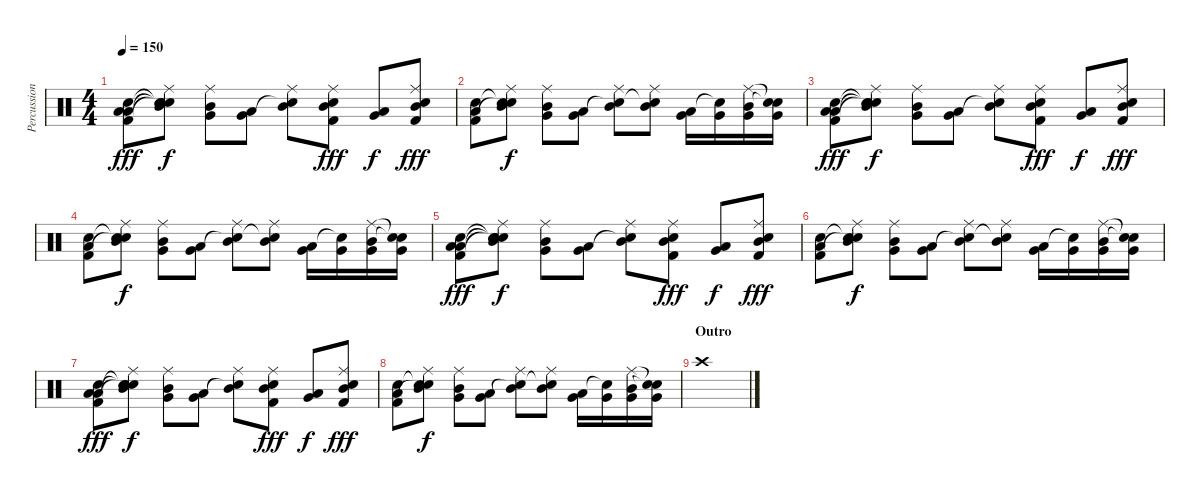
\track ("Percussion" "Percussion") {instrument percussion}
\staff {score}
\articulation defaults
\ts (4 4)
\tempo 150
\clef neutral
\ks c
("Snare (hit) 2" "Kick (hit) 2" "Low Floor Tom (hit)" "Low Tom (hit)").8{dy fff} ("Snare (hit)"{t} "Snare (hit)"{t} "Snare (hit)"{t} "Ride (middle)" "Mid Tom (hit)").8{dy f} ("Very Low Tom (hit)" "Ride (middle)" "Mid Tom (hit)").8 ("Very Low Tom (hit)" "Low Tom (hit)").8 ("Snare (hit)"{t} "Ride (middle)" "Mid Tom (hit)").8 ("Snare (hit) 2" "Kick (hit) 2" "Ride (middle)" "Mid Tom (hit)").8{dy fff} ("Very Low Tom (hit)" "Low Tom (hit)").8{dy f} ("Snare (hit) 2" "Kick (hit) 2" "Ride (middle)" "Mid Tom (hit)").8{dy fff} |
("Snare (hit) 2" "Kick (hit) 2" "Low Tom (hit)").8 ("Snare (hit)"{t} "Snare (hit)"{t} "Ride (middle)" "Mid Tom (hit)").8{dy f} ("Very Low Tom (hit)" "Ride (middle)" "Mid Tom (hit)").8 ("Very Low Tom (hit)" "Low Tom (hit)").8 ("Snare (hit)"{t} "Ride (middle)" "Mid Tom (hit)").8 ("Snare (hit)"{t} "Ride (middle)" "Mid Tom (hit)").8 ("Very Low Tom (hit)" "Low Tom (hit)").16 ("Very Low Tom (hit)" "Snare (hit)"{t}).16 ("Very Low Tom (hit)" "Ride (middle)" "Mid Tom (hit)").16 ("Very Low Tom (hit)" "Snare (hit)"{t} "Snare (hit)"{t}).16 |
("Snare (hit) 2" "Kick (hit) 2" "Low Floor Tom (hit)" "Low Tom (hit)").8{dy fff} ("Snare (hit)"{t} "Snare (hit)"{t} "Snare (hit)"{t} "Ride (middle)" "Mid Tom (hit)").8{dy f} ("Very Low Tom (hit)" "Ride (middle)" "Mid Tom (hit)").8 ("Very Low Tom (hit)" "Low Tom (hit)").8 ("Snare (hit)"{t} "Ride (middle)" "Mid Tom (hit)").8 ("Snare (hit) 2" "Kick (hit) 2" "Ride (middle)" "Mid Tom (hit)").8{dy fff} ("Very Low Tom (hit)" "Low Tom (hit)").8{dy f} ("Snare (hit) 2" "Kick (hit) 2" "Ride (middle)" "Mid Tom (hit)").8{dy fff} |
("Snare (hit) 2" "Kick (hit) 2" "Low Tom (hit)").8 ("Snare (hit)"{t} "Snare (hit)"{t} "Ride (middle)" "Mid Tom (hit)").8{dy f} ("Very Low Tom (hit)" "Ride (middle)" "Mid Tom (hit)").8 ("Very Low Tom (hit)" "Low Tom (hit)").8 ("Snare (hit)"{t} "Ride (middle)" "Mid Tom (hit)").8 ("Snare (hit)"{t} "Ride (middle)" "Mid Tom (hit)").8 ("Very Low Tom (hit)" "Low Tom (hit)").16 ("Very Low Tom (hit)" "Snare (hit)"{t}).16 ("Very Low Tom (hit)" "Ride (middle)" "Mid Tom (hit)").16 ("Very Low Tom (hit)" "Snare (hit)"{t} "Snare (hit)"{t}).16 |
("Snare (hit) 2" "Kick (hit) 2" "Low Floor Tom (hit)" "Low Tom (hit)").8{dy fff} ("Snare (hit)"{t} "Snare (hit)"{t} "Snare (hit)"{t} "Ride (middle)" "Mid Tom (hit)").8{dy f} ("Very Low Tom (hit)" "Ride (middle)" "Mid Tom (hit)").8 ("Very Low Tom (hit)" "Low Tom (hit)").8 ("Snare (hit)"{t} "Ride (middle)" "Mid Tom (hit)").8 ("Snare (hit) 2" "Kick (hit) 2" "Ride (middle)" "Mid Tom (hit)").8{dy fff} ("Very Low Tom (hit)" "Low Tom (hit)").8{dy f} ("Snare (hit) 2" "Kick (hit) 2" "Ride (middle)" "Mid Tom (hit)").8{dy fff} |
("Snare (hit) 2" "Kick (hit) 2" "Low Tom (hit)").8 ("Snare (hit)"{t} "Snare (hit)"{t} "Ride (middle)" "Mid Tom (hit)").8{dy f} ("Very Low Tom (hit)" "Ride (middle)" "Mid Tom (hit)").8 ("Very Low Tom (hit)" "Low Tom (hit)").8 ("Snare (hit)"{t} "Ride (middle)" "Mid Tom (hit)").8 ("Snare (hit)"{t} "Ride (middle)" "Mid Tom (hit)").8 ("Very Low Tom (hit)" "Low Tom (hit)").16 ("Very Low Tom (hit)" "Snare (hit)"{t}).16 ("Very Low Tom (hit)" "Ride (middle)" "Mid Tom (hit)").16 ("Very Low Tom (hit)" "Snare (hit)"{t} "Snare (hit)"{t}).16 |
("Snare (hit) 2" "Kick (hit) 2" "Low Floor Tom (hit)" "Low Tom (hit)").8{dy fff} ("Snare (hit)"{t} "Snare (hit)"{t} "Snare (hit)"{t} "Ride (middle)" "Mid Tom (hit)").8{dy f} ("Very Low Tom (hit)" "Ride (middle)" "Mid Tom (hit)").8 ("Very Low Tom (hit)" "Low Tom (hit)").8 ("Snare (hit)"{t} "Ride (middle)" "Mid Tom (hit)").8 ("Snare (hit) 2" "Kick (hit) 2" "Ride (middle)" "Mid Tom (hit)").8{dy fff} ("Very Low Tom (hit)" "Low Tom (hit)").8{dy f} ("Snare (hit) 2" "Kick (hit) 2" "Ride (middle)" "Mid Tom (hit)").8{dy fff} |
("Snare (hit) 2" "Kick (hit) 2" "Low Tom (hit)").8 ("Snare (hit)"{t} "Snare (hit)"{t} "Ride (middle)" "Mid Tom (hit)").8{dy f} ("Very Low Tom (hit)" "Ride (middle)" "Mid Tom (hit)").8 ("Very Low Tom (hit)" "Low Tom (hit)").8 ("Snare (hit)"{t} "Ride (middle)" "Mid Tom (hit)").8 ("Snare (hit)"{t} "Ride (middle)" "Mid Tom (hit)").8 ("Very Low Tom (hit)" "Low Tom (hit)").16 ("Very Low Tom (hit)" "Snare (hit)"{t}).16 ("Very Low Tom (hit)" "Ride (middle)" "Mid Tom (hit)").16 ("Very Low Tom (hit)" "Snare (hit)"{t} "Snare (hit)"{t}).16 |
\section ("" "Outro")
"Crash high (hit)".1
